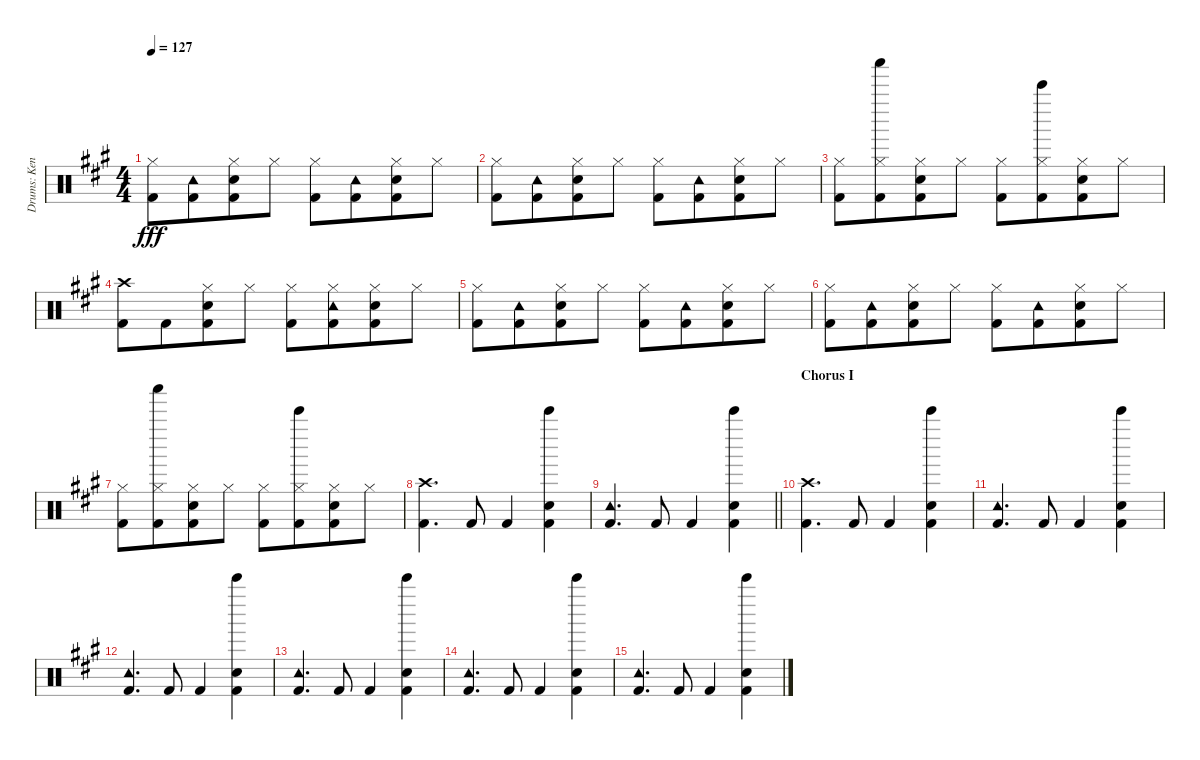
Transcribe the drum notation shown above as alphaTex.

\track ("Drums: Kenny" "Drums: Ken") {instrument percussion}
\staff {score}
\articulation defaults
\ts (4 4)
\tempo 127
\clef neutral
\ks a
("Hi-Hat (closed)" "Kick (hit) 2").8{dy fff} ("Tambourine (hit)" "Kick (hit) 2").8{beam merge} ("Hi-Hat (closed)" "Snare (hit) 2" "Kick (hit) 2").8 "Hi-Hat (closed)".8 ("Hi-Hat (closed)" "Kick (hit) 2").8 ("Tambourine (hit)" "Kick (hit) 2").8{beam merge} ("Hi-Hat (closed)" "Snare (hit) 2" "Kick (hit) 2").8 "Hi-Hat (closed)".8 |
("Hi-Hat (closed)" "Kick (hit) 2").8 ("Tambourine (hit)" "Kick (hit) 2").8{beam merge} ("Hi-Hat (closed)" "Snare (hit) 2" "Kick (hit) 2").8 "Hi-Hat (closed)".8 ("Hi-Hat (closed)" "Kick (hit) 2").8 ("Tambourine (hit)" "Kick (hit) 2").8{beam merge} ("Hi-Hat (closed)" "Snare (hit) 2" "Kick (hit) 2").8 "Hi-Hat (closed)".8 |
("Hi-Hat (closed)" "Kick (hit) 2").8 ("Shaker (hit)" "Hi-Hat (closed)" "Kick (hit) 2").8{beam merge} ("Hi-Hat (closed)" "Snare (hit) 2" "Kick (hit) 2").8 "Hi-Hat (closed)".8 ("Hi-Hat (closed)" "Kick (hit) 2").8 ("Bell Tree (hit)" "Hi-Hat (closed)" "Kick (hit) 2").8{beam merge} ("Hi-Hat (closed)" "Snare (hit) 2" "Kick (hit) 2").8 "Hi-Hat (closed)".8 |
("Crash high (hit)" "Kick (hit) 2").8 "Kick (hit) 2".8{beam merge} ("Hi-Hat (closed)" "Snare (hit) 2" "Kick (hit) 2").8 "Hi-Hat (closed)".8 ("Hi-Hat (closed)" "Kick (hit) 2").8 ("Tambourine (hit)" "Hi-Hat (closed)" "Kick (hit) 2").8{beam merge} ("Hi-Hat (closed)" "Snare (hit) 2" "Kick (hit) 2").8 "Hi-Hat (closed)".8 |
("Hi-Hat (closed)" "Kick (hit) 2").8 ("Tambourine (hit)" "Kick (hit) 2").8{beam merge} ("Hi-Hat (closed)" "Snare (hit) 2" "Kick (hit) 2").8 "Hi-Hat (closed)".8 ("Hi-Hat (closed)" "Kick (hit) 2").8 ("Tambourine (hit)" "Kick (hit) 2").8{beam merge} ("Hi-Hat (closed)" "Snare (hit) 2" "Kick (hit) 2").8 "Hi-Hat (closed)".8 |
("Hi-Hat (closed)" "Kick (hit) 2").8 ("Tambourine (hit)" "Kick (hit) 2").8{beam merge} ("Hi-Hat (closed)" "Snare (hit) 2" "Kick (hit) 2").8 "Hi-Hat (closed)".8 ("Hi-Hat (closed)" "Kick (hit) 2").8 ("Tambourine (hit)" "Kick (hit) 2").8{beam merge} ("Hi-Hat (closed)" "Snare (hit) 2" "Kick (hit) 2").8 "Hi-Hat (closed)".8 |
("Hi-Hat (closed)" "Kick (hit) 2").8 ("Shaker (hit)" "Hi-Hat (closed)" "Kick (hit) 2").8{beam merge} ("Hi-Hat (closed)" "Snare (hit) 2" "Kick (hit) 2").8 "Hi-Hat (closed)".8 ("Hi-Hat (closed)" "Kick (hit) 2").8 ("Bell Tree (hit)" "Hi-Hat (closed)" "Kick (hit) 2").8{beam merge} ("Hi-Hat (closed)" "Snare (hit) 2" "Kick (hit) 2").8 "Hi-Hat (closed)".8 |
("Crash high (hit)" "Kick (hit) 2").4{d} "Kick (hit) 2".8 "Kick (hit) 2".4 ("Bell Tree (hit)" "Snare (hit) 2" "Kick (hit) 2").4 |
\barLineRight lightlight
("Tambourine (hit)" "Kick (hit) 2").4{d} "Kick (hit) 2".8 "Kick (hit) 2".4 ("Bell Tree (hit)" "Snare (hit) 2" "Kick (hit) 2").4 |
\section ("" "Chorus I")
("Crash high (hit)" "Kick (hit) 2").4{d} "Kick (hit) 2".8 "Kick (hit) 2".4 ("Bell Tree (hit)" "Snare (hit) 2" "Kick (hit) 2").4 |
("Tambourine (hit)" "Kick (hit) 2").4{d} "Kick (hit) 2".8 "Kick (hit) 2".4 ("Bell Tree (hit)" "Snare (hit) 2" "Kick (hit) 2").4 |
("Tambourine (hit)" "Kick (hit) 2").4{d} "Kick (hit) 2".8 "Kick (hit) 2".4 ("Bell Tree (hit)" "Snare (hit) 2" "Kick (hit) 2").4 |
("Tambourine (hit)" "Kick (hit) 2").4{d} "Kick (hit) 2".8 "Kick (hit) 2".4 ("Bell Tree (hit)" "Snare (hit) 2" "Kick (hit) 2").4 |
("Tambourine (hit)" "Kick (hit) 2").4{d} "Kick (hit) 2".8 "Kick (hit) 2".4 ("Bell Tree (hit)" "Snare (hit) 2" "Kick (hit) 2").4 |
("Tambourine (hit)" "Kick (hit) 2").4{d} "Kick (hit) 2".8 "Kick (hit) 2".4 ("Bell Tree (hit)" "Snare (hit) 2" "Kick (hit) 2").4
